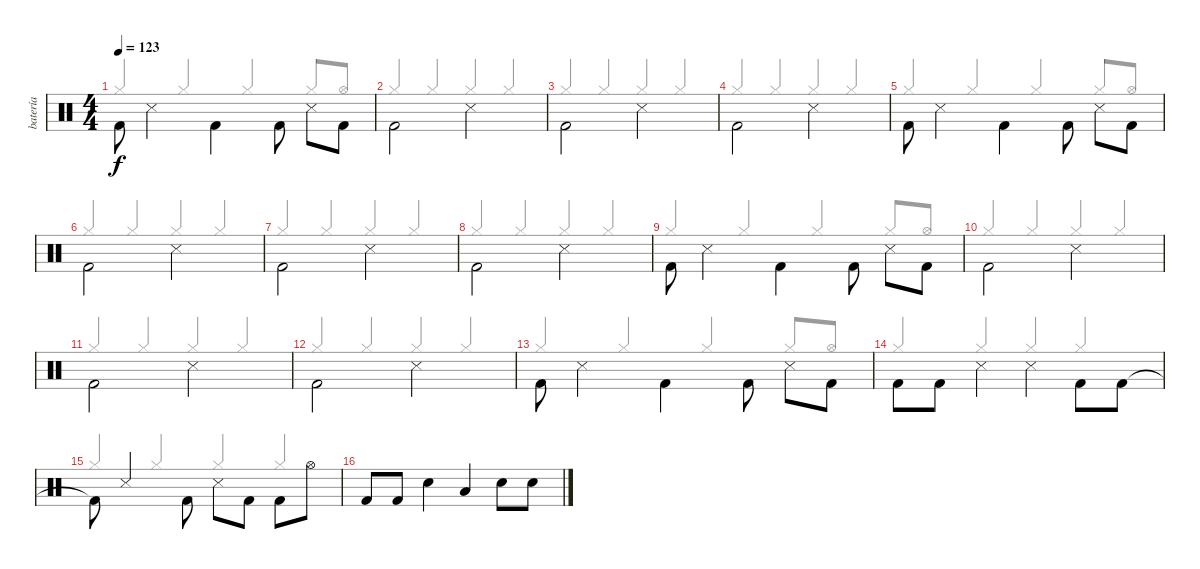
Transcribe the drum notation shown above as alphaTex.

\track ("batería" "batería") {instrument percussion}
\staff {score}
\articulation defaults
\voice
\ts (4 4)
\tempo 123
\clef neutral
\ks c "Kick (hit) 2".8{dy f beam Down} "Snare (side stick) 3".4{beam Down} "Kick (hit) 2".4{beam Down} "Kick (hit) 2".8{beam Down} "Snare (side stick) 3".8{beam Down} "Kick (hit) 2".8{beam Down}
|
"Kick (hit) 2".2{beam Down} "Snare (side stick) 3".2{beam Down} |
"Kick (hit) 2".2{beam Down} "Snare (side stick) 3".2{beam Down} |
"Kick (hit) 2".2{beam Down} "Snare (side stick) 3".2{beam Down} |
"Kick (hit) 2".8{beam Down} "Snare (side stick) 3".4{beam Down} "Kick (hit) 2".4{beam Down} "Kick (hit) 2".8{beam Down} "Snare (side stick) 3".8{beam Down} "Kick (hit) 2".8{beam Down} |
"Kick (hit) 2".2{beam Down} "Snare (side stick) 3".2{beam Down} |
"Kick (hit) 2".2{beam Down} "Snare (side stick) 3".2{beam Down} |
"Kick (hit) 2".2{beam Down} "Snare (side stick) 3".2{beam Down} |
"Kick (hit) 2".8{beam Down} "Snare (side stick) 3".4{beam Down} "Kick (hit) 2".4{beam Down} "Kick (hit) 2".8{beam Down} "Snare (side stick) 3".8{beam Down} "Kick (hit) 2".8{beam Down} |
"Kick (hit) 2".2{beam Down} "Snare (side stick) 3".2{beam Down} |
"Kick (hit) 2".2{beam Down} "Snare (side stick) 3".2{beam Down} |
"Kick (hit) 2".2{beam Down} "Snare (side stick) 3".2{beam Down} |
"Kick (hit) 2".8{beam Down} "Snare (side stick) 3".4{beam Down} "Kick (hit) 2".4{beam Down} "Kick (hit) 2".8{beam Down} "Snare (side stick) 3".8{beam Down} "Kick (hit) 2".8{beam Down} |
"Kick (hit) 2".8{beam Down} "Kick (hit) 2".8{beam Down} "Snare (side stick) 3".4{beam Down} "Snare (side stick) 3".4{beam Down} "Kick (hit) 2".8{beam Down} "Kick (hit) 2".8{beam Down} |
"Kick (hit) 2"{t}.8{beam Down} "Snare (side stick) 3".4 "Kick (hit) 2".8{beam Down} "Snare (side stick) 3".8{beam Down} "Kick (hit) 2".8{beam Down} "Kick (hit) 2".8{beam Down} "Hi-Hat (open)".8{beam Down} |
"Kick (hit) 2".8 "Kick (hit) 2".8 "Snare (hit) 2".4 "Low Tom (hit)".4 "Snare (hit) 2".8 "Snare (hit) 2".8
\voice
\clef neutral
\ottava regular
\simile none
\ks c "Hi-Hat (closed)".4{dy f beam Up} "Hi-Hat (closed)".4{beam Up} "Hi-Hat (closed)".4{beam Up} "Hi-Hat (closed)".8{beam Up} "Hi-Hat (open)".8{beam Up}
|
"Hi-Hat (closed)".4{beam Up} "Hi-Hat (closed)".4{beam Up} "Hi-Hat (closed)".4{beam Up} "Hi-Hat (closed)".4{beam Up} |
"Hi-Hat (closed)".4{beam Up} "Hi-Hat (closed)".4{beam Up} "Hi-Hat (closed)".4{beam Up} "Hi-Hat (closed)".4{beam Up} |
"Hi-Hat (closed)".4{beam Up} "Hi-Hat (closed)".4{beam Up} "Hi-Hat (closed)".4{beam Up} "Hi-Hat (closed)".4{beam Up} |
"Hi-Hat (closed)".4{beam Up} "Hi-Hat (closed)".4{beam Up} "Hi-Hat (closed)".4{beam Up} "Hi-Hat (closed)".8{beam Up} "Hi-Hat (open)".8{beam Up} |
"Hi-Hat (closed)".4{beam Up} "Hi-Hat (closed)".4{beam Up} "Hi-Hat (closed)".4{beam Up} "Hi-Hat (closed)".4{beam Up} |
"Hi-Hat (closed)".4{beam Up} "Hi-Hat (closed)".4{beam Up} "Hi-Hat (closed)".4{beam Up} "Hi-Hat (closed)".4{beam Up} |
"Hi-Hat (closed)".4{beam Up} "Hi-Hat (closed)".4{beam Up} "Hi-Hat (closed)".4{beam Up} "Hi-Hat (closed)".4{beam Up} |
"Hi-Hat (closed)".4{beam Up} "Hi-Hat (closed)".4{beam Up} "Hi-Hat (closed)".4{beam Up} "Hi-Hat (closed)".8{beam Up} "Hi-Hat (open)".8{beam Up} |
"Hi-Hat (closed)".4{beam Up} "Hi-Hat (closed)".4{beam Up} "Hi-Hat (closed)".4{beam Up} "Hi-Hat (closed)".4{beam Up} |
"Hi-Hat (closed)".4{beam Up} "Hi-Hat (closed)".4{beam Up} "Hi-Hat (closed)".4{beam Up} "Hi-Hat (closed)".4{beam Up} |
"Hi-Hat (closed)".4{beam Up} "Hi-Hat (closed)".4{beam Up} "Hi-Hat (closed)".4{beam Up} "Hi-Hat (closed)".4{beam Up} |
"Hi-Hat (closed)".4{beam Up} "Hi-Hat (closed)".4{beam Up} "Hi-Hat (closed)".4{beam Up} "Hi-Hat (closed)".8{beam Up} "Hi-Hat (open)".8{beam Up} |
"Hi-Hat (closed)".4{beam Up} "Hi-Hat (closed)".4{beam Up} "Hi-Hat (closed)".4{beam Up} "Hi-Hat (closed)".4{beam Up} |
"Hi-Hat (closed)".4{beam Up} "Hi-Hat (closed)".4{beam Up} "Hi-Hat (closed)".4{beam Up} "Hi-Hat (closed)".4{beam Up} |
